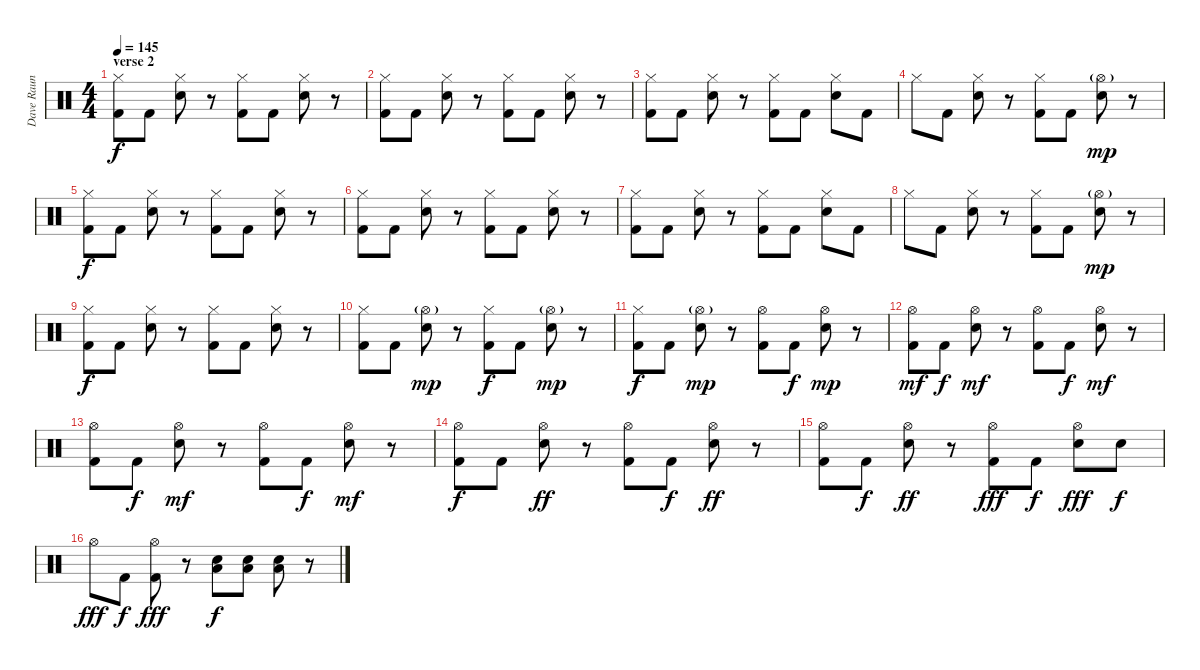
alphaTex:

\track ("Dave Raun" "Dave Raun") {instrument percussion}
\staff {score}
\articulation defaults
\ts (4 4)
\section ("" "verse 2")
\tempo 145
\clef neutral
\ks c
("Hi-Hat (closed)" "Kick (hit) 2").8{dy f} "Kick (hit) 2".8 ("Hi-Hat (closed)" "Electric Snare (hit)").8 r.8 ("Hi-Hat (closed)" "Kick (hit) 2").8 "Kick (hit) 2".8 ("Hi-Hat (closed)" "Electric Snare (hit)").8 r.8 |
("Hi-Hat (closed)" "Kick (hit) 2").8 "Kick (hit) 2".8 ("Hi-Hat (closed)" "Electric Snare (hit)").8 r.8 ("Hi-Hat (closed)" "Kick (hit) 2").8 "Kick (hit) 2".8 ("Hi-Hat (closed)" "Electric Snare (hit)").8 r.8 |
("Hi-Hat (closed)" "Kick (hit) 2").8 "Kick (hit) 2".8 ("Hi-Hat (closed)" "Electric Snare (hit)").8 r.8 ("Hi-Hat (closed)" "Kick (hit) 2").8 "Kick (hit) 2".8 ("Hi-Hat (closed)" "Electric Snare (hit)").8 "Kick (hit) 2".8 |
"Hi-Hat (closed)".8 "Kick (hit) 2".8 ("Hi-Hat (closed)" "Electric Snare (hit)").8 r.8 ("Hi-Hat (closed)" "Kick (hit) 2").8 "Kick (hit) 2".8 ("Hi-Hat (open)"{g} "Electric Snare (hit)").8{dy mp} r.8 |
("Hi-Hat (closed)" "Kick (hit) 2").8{dy f} "Kick (hit) 2".8 ("Hi-Hat (closed)" "Electric Snare (hit)").8 r.8 ("Hi-Hat (closed)" "Kick (hit) 2").8 "Kick (hit) 2".8 ("Hi-Hat (closed)" "Electric Snare (hit)").8 r.8 |
("Hi-Hat (closed)" "Kick (hit) 2").8 "Kick (hit) 2".8 ("Hi-Hat (closed)" "Electric Snare (hit)").8 r.8 ("Hi-Hat (closed)" "Kick (hit) 2").8 "Kick (hit) 2".8 ("Hi-Hat (closed)" "Electric Snare (hit)").8 r.8 |
("Hi-Hat (closed)" "Kick (hit) 2").8 "Kick (hit) 2".8 ("Hi-Hat (closed)" "Electric Snare (hit)").8 r.8 ("Hi-Hat (closed)" "Kick (hit) 2").8 "Kick (hit) 2".8 ("Hi-Hat (closed)" "Electric Snare (hit)").8 "Kick (hit) 2".8 |
"Hi-Hat (closed)".8 "Kick (hit) 2".8 ("Hi-Hat (closed)" "Electric Snare (hit)").8 r.8 ("Hi-Hat (closed)" "Kick (hit) 2").8 "Kick (hit) 2".8 ("Hi-Hat (open)"{g} "Electric Snare (hit)").8{dy mp} r.8 |
("Hi-Hat (closed)" "Kick (hit) 2").8{dy f} "Kick (hit) 2".8 ("Hi-Hat (closed)" "Electric Snare (hit)").8 r.8 ("Hi-Hat (closed)" "Kick (hit) 2").8 "Kick (hit) 2".8 ("Hi-Hat (closed)" "Electric Snare (hit)").8 r.8 |
("Hi-Hat (closed)" "Kick (hit) 2").8 "Kick (hit) 2".8 ("Hi-Hat (open)"{g} "Electric Snare (hit)").8{dy mp} r.8 ("Hi-Hat (closed)" "Kick (hit) 2").8{dy f} "Kick (hit) 2".8 ("Hi-Hat (open)"{g} "Electric Snare (hit)").8{dy mp} r.8 |
("Hi-Hat (closed)" "Kick (hit) 2").8{dy f} "Kick (hit) 2".8 ("Hi-Hat (open)"{g} "Electric Snare (hit)").8{dy mp} r.8 ("Hi-Hat (open)" "Kick (hit) 2").8 "Kick (hit) 2".8{dy f} ("Hi-Hat (open)" "Electric Snare (hit)").8{dy mp} r.8 |
("Hi-Hat (open)" "Kick (hit) 2").8{dy mf} "Kick (hit) 2".8{dy f} ("Hi-Hat (open)" "Electric Snare (hit)").8{dy mf} r.8 ("Hi-Hat (open)" "Kick (hit) 2").8 "Kick (hit) 2".8{dy f} ("Hi-Hat (open)" "Electric Snare (hit)").8{dy mf} r.8 |
("Hi-Hat (open)" "Kick (hit) 2").8 "Kick (hit) 2".8{dy f} ("Hi-Hat (open)" "Electric Snare (hit)").8{dy mf} r.8 ("Hi-Hat (open)" "Kick (hit) 2").8 "Kick (hit) 2".8{dy f} ("Hi-Hat (open)" "Electric Snare (hit)").8{dy mf} r.8 |
("Hi-Hat (open)" "Kick (hit) 2").8{dy f} "Kick (hit) 2".8 ("Hi-Hat (open)" "Electric Snare (hit)").8{dy ff} r.8 ("Hi-Hat (open)" "Kick (hit) 2").8 "Kick (hit) 2".8{dy f} ("Hi-Hat (open)" "Electric Snare (hit)").8{dy ff} r.8 |
("Hi-Hat (open)" "Kick (hit) 2").8 "Kick (hit) 2".8{dy f} ("Hi-Hat (open)" "Electric Snare (hit)").8{dy ff} r.8 ("Hi-Hat (open)" "Kick (hit) 2").8{dy fff} "Kick (hit) 2".8{dy f} ("Hi-Hat (open)" "Electric Snare (hit)").8{dy fff} "Electric Snare (hit)".8{dy f} |
"Hi-Hat (open)".8{dy fff} "Kick (hit) 2".8{dy f} ("Hi-Hat (open)" "Kick (hit) 2").8{dy fff} r.8 ("Low Tom (hit)" "Electric Snare (hit)").8{dy f} ("Low Floor Tom (hit)" "Electric Snare (hit)").8 ("Low Tom (hit)" "Electric Snare (hit)").8 r.8
